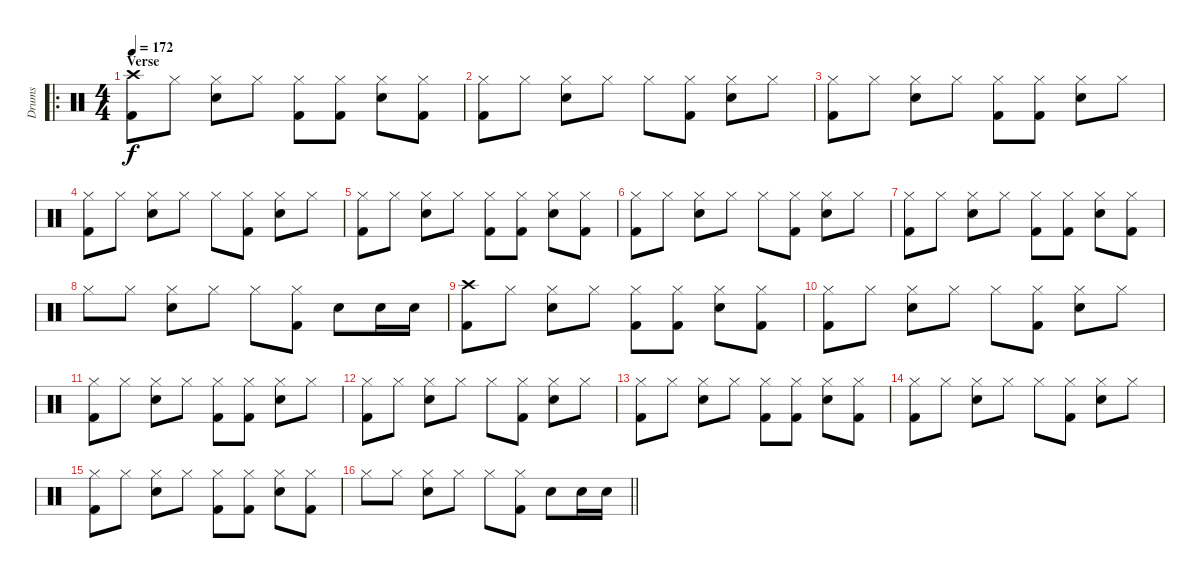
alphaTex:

\track ("Drums" "Drums") {instrument percussion}
\staff {score}
\articulation defaults
\ro
\ts (4 4)
\section ("" "Verse")
\tempo 172
\clef neutral
\ks c
("Crash high (hit)" "Kick (hit) 2").8{dy f} "Hi-Hat (closed)".8 ("Hi-Hat (closed)" "Electric Snare (hit)").8 "Hi-Hat (closed)".8 ("Hi-Hat (closed)" "Kick (hit) 2").8 ("Hi-Hat (closed)" "Kick (hit) 2").8 ("Hi-Hat (closed)" "Electric Snare (hit)").8 ("Hi-Hat (closed)" "Kick (hit) 2").8 |
("Hi-Hat (closed)" "Kick (hit) 2").8 "Hi-Hat (closed)".8 ("Hi-Hat (closed)" "Electric Snare (hit)").8 "Hi-Hat (closed)".8 "Hi-Hat (closed)".8 ("Hi-Hat (closed)" "Kick (hit) 2").8 ("Hi-Hat (closed)" "Electric Snare (hit)").8 "Hi-Hat (closed)".8 |
("Hi-Hat (closed)" "Kick (hit) 2").8 "Hi-Hat (closed)".8 ("Hi-Hat (closed)" "Electric Snare (hit)").8 "Hi-Hat (closed)".8 ("Hi-Hat (closed)" "Kick (hit) 2").8 ("Hi-Hat (closed)" "Kick (hit) 2").8 ("Hi-Hat (closed)" "Electric Snare (hit)").8 "Hi-Hat (closed)".8 |
("Hi-Hat (closed)" "Kick (hit) 2").8 "Hi-Hat (closed)".8 ("Hi-Hat (closed)" "Electric Snare (hit)").8 "Hi-Hat (closed)".8 "Hi-Hat (closed)".8 ("Hi-Hat (closed)" "Kick (hit) 2").8 ("Hi-Hat (closed)" "Electric Snare (hit)").8 "Hi-Hat (closed)".8 |
("Hi-Hat (closed)" "Kick (hit) 2").8 "Hi-Hat (closed)".8 ("Hi-Hat (closed)" "Electric Snare (hit)").8 "Hi-Hat (closed)".8 ("Hi-Hat (closed)" "Kick (hit) 2").8 ("Hi-Hat (closed)" "Kick (hit) 2").8 ("Hi-Hat (closed)" "Electric Snare (hit)").8 ("Hi-Hat (closed)" "Kick (hit) 2").8 |
("Hi-Hat (closed)" "Kick (hit) 2").8 "Hi-Hat (closed)".8 ("Hi-Hat (closed)" "Electric Snare (hit)").8 "Hi-Hat (closed)".8 "Hi-Hat (closed)".8 ("Hi-Hat (closed)" "Kick (hit) 2").8 ("Hi-Hat (closed)" "Electric Snare (hit)").8 "Hi-Hat (closed)".8 |
("Hi-Hat (closed)" "Kick (hit) 2").8 "Hi-Hat (closed)".8 ("Hi-Hat (closed)" "Electric Snare (hit)").8 "Hi-Hat (closed)".8 ("Hi-Hat (closed)" "Kick (hit) 2").8 ("Hi-Hat (closed)" "Kick (hit) 2").8 ("Hi-Hat (closed)" "Electric Snare (hit)").8 ("Hi-Hat (closed)" "Kick (hit) 2").8 |
"Hi-Hat (closed)".8 "Hi-Hat (closed)".8 ("Hi-Hat (closed)" "Electric Snare (hit)").8 "Hi-Hat (closed)".8 "Hi-Hat (closed)".8 ("Hi-Hat (closed)" "Kick (hit) 2").8 "Electric Snare (hit)".8 "Electric Snare (hit)".16 "Electric Snare (hit)".16 |
("Crash high (hit)" "Kick (hit) 2").8 "Hi-Hat (closed)".8 ("Hi-Hat (closed)" "Electric Snare (hit)").8 "Hi-Hat (closed)".8 ("Hi-Hat (closed)" "Kick (hit) 2").8 ("Hi-Hat (closed)" "Kick (hit) 2").8 ("Hi-Hat (closed)" "Electric Snare (hit)").8 ("Hi-Hat (closed)" "Kick (hit) 2").8 |
("Hi-Hat (closed)" "Kick (hit) 2").8 "Hi-Hat (closed)".8 ("Hi-Hat (closed)" "Electric Snare (hit)").8 "Hi-Hat (closed)".8 "Hi-Hat (closed)".8 ("Hi-Hat (closed)" "Kick (hit) 2").8 ("Hi-Hat (closed)" "Electric Snare (hit)").8 "Hi-Hat (closed)".8 |
("Hi-Hat (closed)" "Kick (hit) 2").8 "Hi-Hat (closed)".8 ("Hi-Hat (closed)" "Electric Snare (hit)").8 "Hi-Hat (closed)".8 ("Hi-Hat (closed)" "Kick (hit) 2").8 ("Hi-Hat (closed)" "Kick (hit) 2").8 ("Hi-Hat (closed)" "Electric Snare (hit)").8 "Hi-Hat (closed)".8 |
("Hi-Hat (closed)" "Kick (hit) 2").8 "Hi-Hat (closed)".8 ("Hi-Hat (closed)" "Electric Snare (hit)").8 "Hi-Hat (closed)".8 "Hi-Hat (closed)".8 ("Hi-Hat (closed)" "Kick (hit) 2").8 ("Hi-Hat (closed)" "Electric Snare (hit)").8 "Hi-Hat (closed)".8 |
("Hi-Hat (closed)" "Kick (hit) 2").8 "Hi-Hat (closed)".8 ("Hi-Hat (closed)" "Electric Snare (hit)").8 "Hi-Hat (closed)".8 ("Hi-Hat (closed)" "Kick (hit) 2").8 ("Hi-Hat (closed)" "Kick (hit) 2").8 ("Hi-Hat (closed)" "Electric Snare (hit)").8 ("Hi-Hat (closed)" "Kick (hit) 2").8 |
("Hi-Hat (closed)" "Kick (hit) 2").8 "Hi-Hat (closed)".8 ("Hi-Hat (closed)" "Electric Snare (hit)").8 "Hi-Hat (closed)".8 "Hi-Hat (closed)".8 ("Hi-Hat (closed)" "Kick (hit) 2").8 ("Hi-Hat (closed)" "Electric Snare (hit)").8 "Hi-Hat (closed)".8 |
("Hi-Hat (closed)" "Kick (hit) 2").8 "Hi-Hat (closed)".8 ("Hi-Hat (closed)" "Electric Snare (hit)").8 "Hi-Hat (closed)".8 ("Hi-Hat (closed)" "Kick (hit) 2").8 ("Hi-Hat (closed)" "Kick (hit) 2").8 ("Hi-Hat (closed)" "Electric Snare (hit)").8 ("Hi-Hat (closed)" "Kick (hit) 2").8 |
\barLineRight lightlight "Hi-Hat (closed)".8 "Hi-Hat (closed)".8
("Hi-Hat (closed)" "Electric Snare (hit)").8 "Hi-Hat (closed)".8 "Hi-Hat (closed)".8 ("Hi-Hat (closed)" "Kick (hit) 2").8 "Electric Snare (hit)".8 "Electric Snare (hit)".16 "Electric Snare (hit)".16
